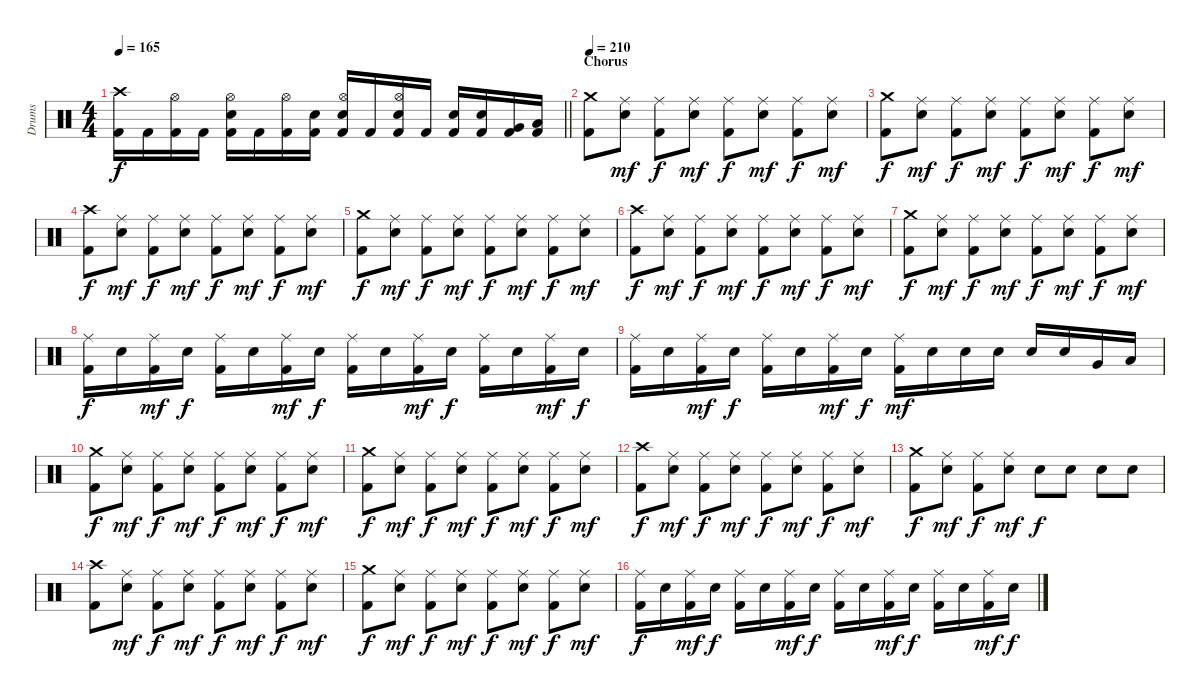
\track ("Drums" "Drums") {instrument percussion}
\staff {score}
\articulation defaults
\ts (4 4)
\tempo 165
\clef neutral
\barLineRight lightlight
\ks c
("Crash high (hit)" "Kick (hit) 2").16{dy f} "Kick (hit) 2".16 ("Hi-Hat (open)" "Kick (hit) 2").16 "Kick (hit) 2".16 ("Hi-Hat (open)" "Snare (hit) 2" "Kick (hit) 2").16 "Kick (hit) 2".16 ("Hi-Hat (open)" "Kick (hit) 2").16 ("Snare (hit) 2" "Kick (hit) 2").16 ("Hi-Hat (open)" "Snare (hit) 2" "Kick (hit) 2").16 "Kick (hit) 2".16 ("Hi-Hat (open)" "Snare (hit) 2" "Kick (hit) 2").16 "Kick (hit) 2".16 ("Snare (hit) 2" "Kick (hit) 2").16 ("Snare (hit) 2" "Kick (hit) 2").16 ("Very Low Tom (hit)" "Kick (hit) 2").16 ("Low Floor Tom (hit)" "Kick (hit) 2").16 |
\section ("" "Chorus")
\tempo 210
("Crash medium (hit)" "Kick (hit) 2").8 ("Ride (middle)" "Snare (hit) 2").8{dy mf} ("Ride (middle)" "Kick (hit) 2").8{dy f} ("Ride (middle)" "Snare (hit) 2").8{dy mf} ("Ride (middle)" "Kick (hit) 2").8{dy f} ("Ride (middle)" "Snare (hit) 2").8{dy mf} ("Ride (middle)" "Kick (hit) 2").8{dy f} ("Ride (middle)" "Snare (hit) 2").8{dy mf} |
("Crash medium (hit)" "Kick (hit) 2").8{dy f} ("Ride (middle)" "Snare (hit) 2").8{dy mf} ("Ride (middle)" "Kick (hit) 2").8{dy f} ("Ride (middle)" "Snare (hit) 2").8{dy mf} ("Ride (middle)" "Kick (hit) 2").8{dy f} ("Ride (middle)" "Snare (hit) 2").8{dy mf} ("Ride (middle)" "Kick (hit) 2").8{dy f} ("Ride (middle)" "Snare (hit) 2").8{dy mf} |
("Crash high (hit)" "Kick (hit) 2").8{dy f} ("Ride (middle)" "Snare (hit) 2").8{dy mf} ("Ride (middle)" "Kick (hit) 2").8{dy f} ("Ride (middle)" "Snare (hit) 2").8{dy mf} ("Ride (middle)" "Kick (hit) 2").8{dy f} ("Ride (middle)" "Snare (hit) 2").8{dy mf} ("Ride (middle)" "Kick (hit) 2").8{dy f} ("Ride (middle)" "Snare (hit) 2").8{dy mf} |
("Crash medium (hit)" "Kick (hit) 2").8{dy f} ("Ride (middle)" "Snare (hit) 2").8{dy mf} ("Ride (middle)" "Kick (hit) 2").8{dy f} ("Ride (middle)" "Snare (hit) 2").8{dy mf} ("Ride (middle)" "Kick (hit) 2").8{dy f} ("Ride (middle)" "Snare (hit) 2").8{dy mf} ("Ride (middle)" "Kick (hit) 2").8{dy f} ("Ride (middle)" "Snare (hit) 2").8{dy mf} |
("Crash high (hit)" "Kick (hit) 2").8{dy f} ("Ride (middle)" "Snare (hit) 2").8{dy mf} ("Ride (middle)" "Kick (hit) 2").8{dy f} ("Ride (middle)" "Snare (hit) 2").8{dy mf} ("Ride (middle)" "Kick (hit) 2").8{dy f} ("Ride (middle)" "Snare (hit) 2").8{dy mf} ("Ride (middle)" "Kick (hit) 2").8{dy f} ("Ride (middle)" "Snare (hit) 2").8{dy mf} |
("Crash medium (hit)" "Kick (hit) 2").8{dy f} ("Ride (middle)" "Snare (hit) 2").8{dy mf} ("Ride (middle)" "Kick (hit) 2").8{dy f} ("Ride (middle)" "Snare (hit) 2").8{dy mf} ("Ride (middle)" "Kick (hit) 2").8{dy f} ("Ride (middle)" "Snare (hit) 2").8{dy mf} ("Ride (middle)" "Kick (hit) 2").8{dy f} ("Ride (middle)" "Snare (hit) 2").8{dy mf} |
("Ride (middle)" "Kick (hit) 2").16{dy f} "Snare (hit) 2".16 ("Ride (middle)" "Kick (hit) 2").16{dy mf} "Snare (hit) 2".16{dy f} ("Ride (middle)" "Kick (hit) 2").16 "Snare (hit) 2".16 ("Ride (middle)" "Kick (hit) 2").16{dy mf} "Snare (hit) 2".16{dy f} ("Ride (middle)" "Kick (hit) 2").16 "Snare (hit) 2".16 ("Ride (middle)" "Kick (hit) 2").16{dy mf} "Snare (hit) 2".16{dy f} ("Ride (middle)" "Kick (hit) 2").16 "Snare (hit) 2".16 ("Ride (middle)" "Kick (hit) 2").16{dy mf} "Snare (hit) 2".16{dy f} |
("Ride (middle)" "Kick (hit) 2").16 "Snare (hit) 2".16 ("Ride (middle)" "Kick (hit) 2").16{dy mf} "Snare (hit) 2".16{dy f} ("Ride (middle)" "Kick (hit) 2").16 "Snare (hit) 2".16 ("Ride (middle)" "Kick (hit) 2").16{dy mf} "Snare (hit) 2".16{dy f} ("Ride (middle)" "Kick (hit) 2").16{dy mf} "Snare (hit) 2".16 "Snare (hit) 2".16 "Snare (hit) 2".16 "Snare (hit) 2".16 "Snare (hit) 2".16 "Very Low Tom (hit)".16 "Low Floor Tom (hit)".16 |
("Crash medium (hit)" "Kick (hit) 2").8{dy f} ("Ride (middle)" "Snare (hit) 2").8{dy mf} ("Ride (middle)" "Kick (hit) 2").8{dy f} ("Ride (middle)" "Snare (hit) 2").8{dy mf} ("Ride (middle)" "Kick (hit) 2").8{dy f} ("Ride (middle)" "Snare (hit) 2").8{dy mf} ("Ride (middle)" "Kick (hit) 2").8{dy f} ("Ride (middle)" "Snare (hit) 2").8{dy mf} |
("Crash medium (hit)" "Kick (hit) 2").8{dy f} ("Ride (middle)" "Snare (hit) 2").8{dy mf} ("Ride (middle)" "Kick (hit) 2").8{dy f} ("Ride (middle)" "Snare (hit) 2").8{dy mf} ("Ride (middle)" "Kick (hit) 2").8{dy f} ("Ride (middle)" "Snare (hit) 2").8{dy mf} ("Ride (middle)" "Kick (hit) 2").8{dy f} ("Ride (middle)" "Snare (hit) 2").8{dy mf} |
("Crash high (hit)" "Kick (hit) 2").8{dy f} ("Ride (middle)" "Snare (hit) 2").8{dy mf} ("Ride (middle)" "Kick (hit) 2").8{dy f} ("Ride (middle)" "Snare (hit) 2").8{dy mf} ("Ride (middle)" "Kick (hit) 2").8{dy f} ("Ride (middle)" "Snare (hit) 2").8{dy mf} ("Ride (middle)" "Kick (hit) 2").8{dy f} ("Ride (middle)" "Snare (hit) 2").8{dy mf} |
("Crash medium (hit)" "Kick (hit) 2").8{dy f} ("Ride (middle)" "Snare (hit) 2").8{dy mf} ("Ride (middle)" "Kick (hit) 2").8{dy f} ("Ride (middle)" "Snare (hit) 2").8{dy mf} "Snare (hit) 2".8{dy f} "Snare (hit) 2".8 "Snare (hit) 2".8 "Snare (hit) 2".8 |
("Crash high (hit)" "Kick (hit) 2").8 ("Ride (middle)" "Snare (hit) 2").8{dy mf} ("Ride (middle)" "Kick (hit) 2").8{dy f} ("Ride (middle)" "Snare (hit) 2").8{dy mf} ("Ride (middle)" "Kick (hit) 2").8{dy f} ("Ride (middle)" "Snare (hit) 2").8{dy mf} ("Ride (middle)" "Kick (hit) 2").8{dy f} ("Ride (middle)" "Snare (hit) 2").8{dy mf} |
("Crash medium (hit)" "Kick (hit) 2").8{dy f} ("Ride (middle)" "Snare (hit) 2").8{dy mf} ("Ride (middle)" "Kick (hit) 2").8{dy f} ("Ride (middle)" "Snare (hit) 2").8{dy mf} ("Ride (middle)" "Kick (hit) 2").8{dy f} ("Ride (middle)" "Snare (hit) 2").8{dy mf} ("Ride (middle)" "Kick (hit) 2").8{dy f} ("Ride (middle)" "Snare (hit) 2").8{dy mf} |
("Ride (middle)" "Kick (hit) 2").16{dy f} "Snare (hit) 2".16 ("Ride (middle)" "Kick (hit) 2").16{dy mf} "Snare (hit) 2".16{dy f} ("Ride (middle)" "Kick (hit) 2").16 "Snare (hit) 2".16 ("Ride (middle)" "Kick (hit) 2").16{dy mf} "Snare (hit) 2".16{dy f} ("Ride (middle)" "Kick (hit) 2").16 "Snare (hit) 2".16 ("Ride (middle)" "Kick (hit) 2").16{dy mf} "Snare (hit) 2".16{dy f} ("Ride (middle)" "Kick (hit) 2").16 "Snare (hit) 2".16 ("Ride (middle)" "Kick (hit) 2").16{dy mf} "Snare (hit) 2".16{dy f}
